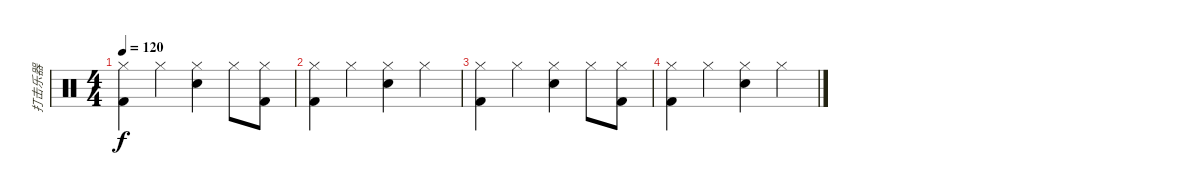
\track ("打击乐器" "打击乐器") {instrument percussion}
\staff {score}
\articulation defaults
\ts (4 4)
\tempo 120
\clef neutral
\ks c
("Hi-Hat (closed)" "Kick (hit) 2").4{dy f} "Hi-Hat (closed)".4 ("Hi-Hat (closed)" "Electric Snare (hit)").4 "Hi-Hat (closed)".8 ("Hi-Hat (closed)" "Kick (hit) 2").8 |
("Hi-Hat (closed)" "Kick (hit) 2").4 "Hi-Hat (closed)".4 ("Hi-Hat (closed)" "Electric Snare (hit)").4 "Hi-Hat (closed)".4 |
("Hi-Hat (closed)" "Kick (hit) 2").4 "Hi-Hat (closed)".4 ("Hi-Hat (closed)" "Electric Snare (hit)").4 "Hi-Hat (closed)".8 ("Hi-Hat (closed)" "Kick (hit) 2").8 |
("Hi-Hat (closed)" "Kick (hit) 2").4 "Hi-Hat (closed)".4 ("Hi-Hat (closed)" "Electric Snare (hit)").4 "Hi-Hat (closed)".4
